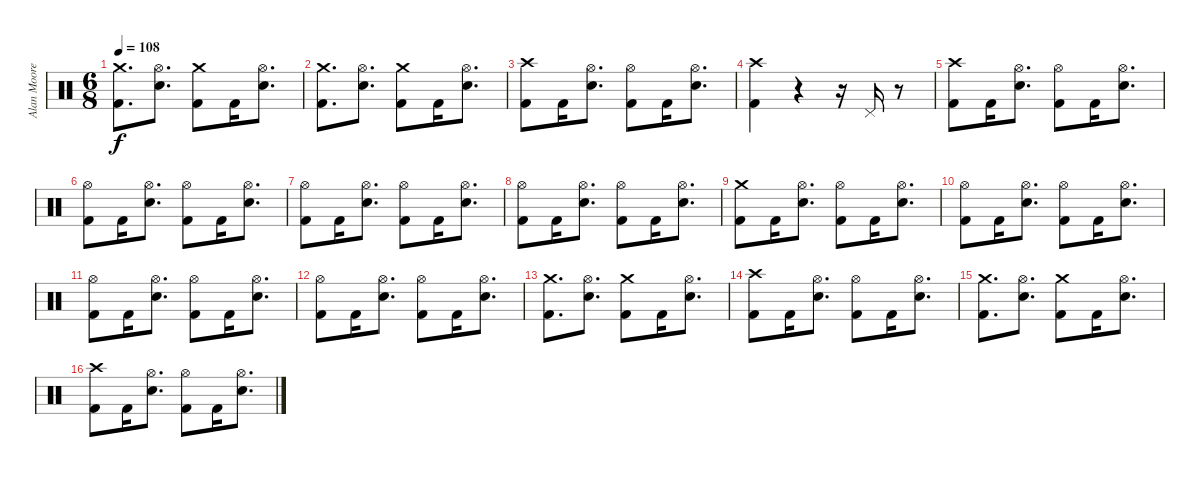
\track ("Alan Moore" "Alan Moore") {instrument percussion}
\staff {score}
\articulation defaults
\ts (6 8)
\tempo 108
\clef neutral
\ks c
("Crash medium (hit)" "Kick (hit) 2").8{d dy f} ("Hi-Hat (open)" "Snare (hit) 2").8{d} ("Crash medium (hit)" "Kick (hit) 2").8 "Kick (hit) 2".16 ("Hi-Hat (open)" "Snare (hit) 2").8{d} |
("Crash medium (hit)" "Kick (hit) 2").8{d} ("Hi-Hat (open)" "Snare (hit) 2").8{d} ("Crash medium (hit)" "Kick (hit) 2").8 "Kick (hit) 2".16 ("Hi-Hat (open)" "Snare (hit) 2").8{d} |
("Crash high (hit)" "Kick (hit) 2").8 "Kick (hit) 2".16 ("Hi-Hat (open)" "Snare (hit) 2").8{d} ("Hi-Hat (open)" "Kick (hit) 2").8 "Kick (hit) 2".16 ("Hi-Hat (open)" "Snare (hit) 2").8{d} |
("Crash high (hit)" "Kick (hit) 2").4 r.4 r.16 "Pedal Hi-Hat (hit)".16 r.8 |
("Crash high (hit)" "Kick (hit) 2").8 "Kick (hit) 2".16 ("Hi-Hat (open)" "Snare (hit) 2").8{d} ("Hi-Hat (open)" "Kick (hit) 2").8 "Kick (hit) 2".16 ("Hi-Hat (open)" "Snare (hit) 2").8{d} |
("Hi-Hat (open)" "Kick (hit) 2").8 "Kick (hit) 2".16 ("Hi-Hat (open)" "Snare (hit) 2").8{d} ("Hi-Hat (open)" "Kick (hit) 2").8 "Kick (hit) 2".16 ("Hi-Hat (open)" "Snare (hit) 2").8{d} |
("Hi-Hat (open)" "Kick (hit) 2").8 "Kick (hit) 2".16 ("Hi-Hat (open)" "Snare (hit) 2").8{d} ("Hi-Hat (open)" "Kick (hit) 2").8 "Kick (hit) 2".16 ("Hi-Hat (open)" "Snare (hit) 2").8{d} |
("Hi-Hat (open)" "Kick (hit) 2").8 "Kick (hit) 2".16 ("Hi-Hat (open)" "Snare (hit) 2").8{d} ("Hi-Hat (open)" "Kick (hit) 2").8 "Kick (hit) 2".16 ("Hi-Hat (open)" "Snare (hit) 2").8{d} |
("Crash medium (hit)" "Kick (hit) 2").8 "Kick (hit) 2".16 ("Hi-Hat (open)" "Snare (hit) 2").8{d} ("Hi-Hat (open)" "Kick (hit) 2").8 "Kick (hit) 2".16 ("Hi-Hat (open)" "Snare (hit) 2").8{d} |
("Hi-Hat (open)" "Kick (hit) 2").8 "Kick (hit) 2".16 ("Hi-Hat (open)" "Snare (hit) 2").8{d} ("Hi-Hat (open)" "Kick (hit) 2").8 "Kick (hit) 2".16 ("Hi-Hat (open)" "Snare (hit) 2").8{d} |
("Hi-Hat (open)" "Kick (hit) 2").8 "Kick (hit) 2".16 ("Hi-Hat (open)" "Snare (hit) 2").8{d} ("Hi-Hat (open)" "Kick (hit) 2").8 "Kick (hit) 2".16 ("Hi-Hat (open)" "Snare (hit) 2").8{d} |
("Hi-Hat (open)" "Kick (hit) 2").8 "Kick (hit) 2".16 ("Hi-Hat (open)" "Snare (hit) 2").8{d} ("Hi-Hat (open)" "Kick (hit) 2").8 "Kick (hit) 2".16 ("Hi-Hat (open)" "Snare (hit) 2").8{d} |
("Crash medium (hit)" "Kick (hit) 2").8{d} ("Hi-Hat (open)" "Snare (hit) 2").8{d} ("Crash medium (hit)" "Kick (hit) 2").8 "Kick (hit) 2".16 ("Hi-Hat (open)" "Snare (hit) 2").8{d} |
("Crash high (hit)" "Kick (hit) 2").8 "Kick (hit) 2".16 ("Hi-Hat (open)" "Snare (hit) 2").8{d} ("Hi-Hat (open)" "Kick (hit) 2").8 "Kick (hit) 2".16 ("Hi-Hat (open)" "Snare (hit) 2").8{d} |
("Crash medium (hit)" "Kick (hit) 2").8{d} ("Hi-Hat (open)" "Snare (hit) 2").8{d} ("Crash medium (hit)" "Kick (hit) 2").8 "Kick (hit) 2".16 ("Hi-Hat (open)" "Snare (hit) 2").8{d} |
("Crash high (hit)" "Kick (hit) 2").8 "Kick (hit) 2".16 ("Hi-Hat (open)" "Snare (hit) 2").8{d} ("Hi-Hat (open)" "Kick (hit) 2").8 "Kick (hit) 2".16 ("Hi-Hat (open)" "Snare (hit) 2").8{d}
